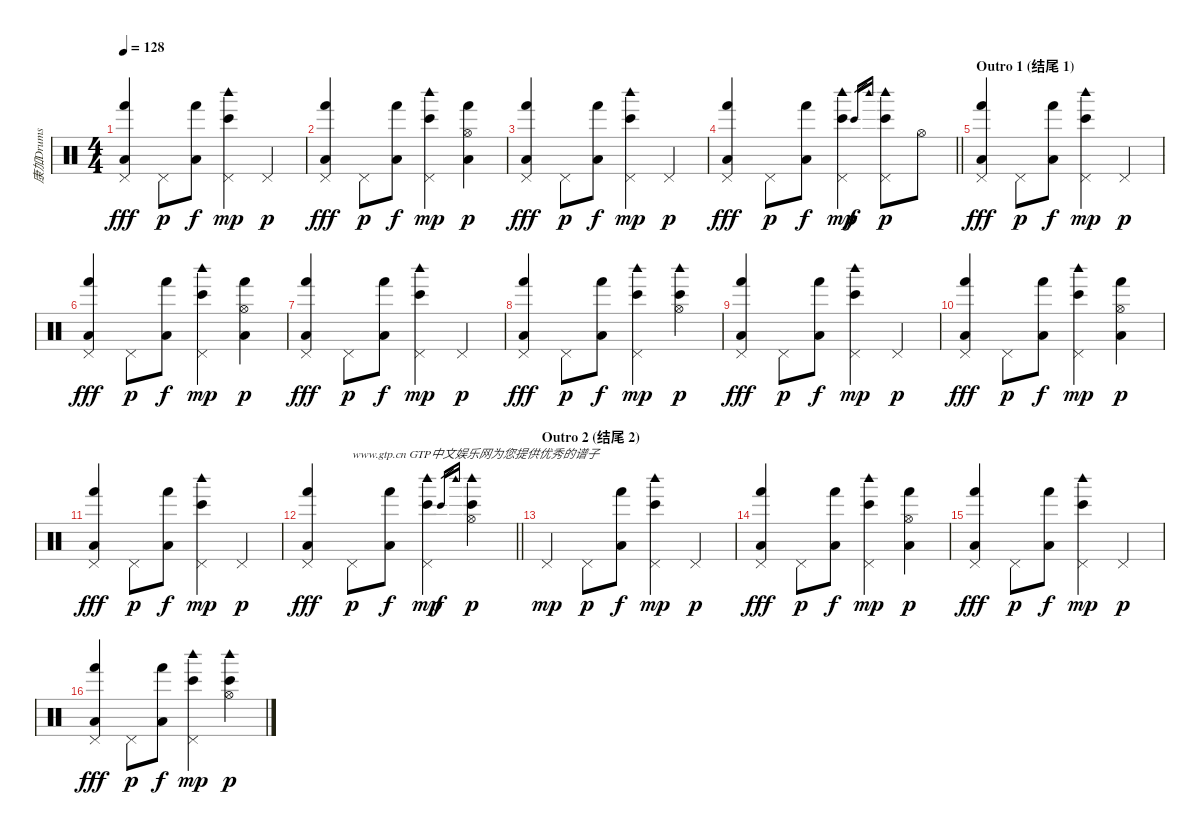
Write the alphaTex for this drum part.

\track ("康加Drums" "康加Drums") {instrument percussion}
\staff {score}
\articulation defaults
\ts (4 4)
\tempo 128
\clef neutral
\ks c
("Pedal Hi-Hat (hit)" "Hand (hit)" "Low Floor Tom (hit)").4{dy fff} "Pedal Hi-Hat (hit)".8{dy p} ("Hand (hit)" "Low Floor Tom (hit)").8{dy f} ("Bongo High (hit)" "Woodblock high (hit)" "Pedal Hi-Hat (hit)").4{dy mp} "Pedal Hi-Hat (hit)".4{dy p} |
("Pedal Hi-Hat (hit)" "Hand (hit)" "Low Floor Tom (hit)").4{dy fff} "Pedal Hi-Hat (hit)".8{dy p} ("Hand (hit)" "Low Floor Tom (hit)").8{dy f} ("Bongo High (hit)" "Woodblock high (hit)" "Pedal Hi-Hat (hit)").4{dy mp} ("Hi-Hat (open)" "Hand (hit)" "Low Floor Tom (hit)").4{dy p} |
("Pedal Hi-Hat (hit)" "Hand (hit)" "Low Floor Tom (hit)").4{dy fff} "Pedal Hi-Hat (hit)".8{dy p} ("Hand (hit)" "Low Floor Tom (hit)").8{dy f} ("Bongo High (hit)" "Woodblock high (hit)" "Pedal Hi-Hat (hit)").4{dy mp} "Pedal Hi-Hat (hit)".4{dy p} |
\barLineRight lightlight
("Pedal Hi-Hat (hit)" "Hand (hit)" "Low Floor Tom (hit)").4{dy fff} "Pedal Hi-Hat (hit)".8{dy p} ("Hand (hit)" "Low Floor Tom (hit)").8{dy f} ("Bongo High (hit)" "Woodblock high (hit)" "Pedal Hi-Hat (hit)").4{dy mp} "Bongo High (hit)".16{gr dy f} "Woodblock high (hit)".16{gr} ("Bongo High (hit)" "Woodblock high (hit)" "Pedal Hi-Hat (hit)").8{dy p} "Hi-Hat (open)".8 |
\section ("" "Outro 1 (结尾 1)")
("Pedal Hi-Hat (hit)" "Hand (hit)" "Low Floor Tom (hit)").4{dy fff} "Pedal Hi-Hat (hit)".8{dy p} ("Hand (hit)" "Low Floor Tom (hit)").8{dy f} ("Bongo High (hit)" "Woodblock high (hit)" "Pedal Hi-Hat (hit)").4{dy mp} "Pedal Hi-Hat (hit)".4{dy p} |
("Pedal Hi-Hat (hit)" "Hand (hit)" "Low Floor Tom (hit)").4{dy fff} "Pedal Hi-Hat (hit)".8{dy p} ("Hand (hit)" "Low Floor Tom (hit)").8{dy f} ("Bongo High (hit)" "Woodblock high (hit)" "Pedal Hi-Hat (hit)").4{dy mp} ("Hi-Hat (open)" "Hand (hit)" "Low Floor Tom (hit)").4{dy p} |
("Pedal Hi-Hat (hit)" "Hand (hit)" "Low Floor Tom (hit)").4{dy fff} "Pedal Hi-Hat (hit)".8{dy p} ("Hand (hit)" "Low Floor Tom (hit)").8{dy f} ("Bongo High (hit)" "Woodblock high (hit)" "Pedal Hi-Hat (hit)").4{dy mp} "Pedal Hi-Hat (hit)".4{dy p} |
("Pedal Hi-Hat (hit)" "Hand (hit)" "Low Floor Tom (hit)").4{dy fff} "Pedal Hi-Hat (hit)".8{dy p} ("Hand (hit)" "Low Floor Tom (hit)").8{dy f} ("Bongo High (hit)" "Woodblock high (hit)" "Pedal Hi-Hat (hit)").4{dy mp} ("Bongo High (hit)" "Woodblock high (hit)" "Hi-Hat (open)").4{dy p} |
("Pedal Hi-Hat (hit)" "Hand (hit)" "Low Floor Tom (hit)").4{dy fff} "Pedal Hi-Hat (hit)".8{dy p} ("Hand (hit)" "Low Floor Tom (hit)").8{dy f} ("Bongo High (hit)" "Woodblock high (hit)" "Pedal Hi-Hat (hit)").4{dy mp} "Pedal Hi-Hat (hit)".4{dy p} |
("Pedal Hi-Hat (hit)" "Hand (hit)" "Low Floor Tom (hit)").4{dy fff} "Pedal Hi-Hat (hit)".8{dy p} ("Hand (hit)" "Low Floor Tom (hit)").8{dy f} ("Bongo High (hit)" "Woodblock high (hit)" "Pedal Hi-Hat (hit)").4{dy mp} ("Hi-Hat (open)" "Hand (hit)" "Low Floor Tom (hit)").4{dy p} |
("Pedal Hi-Hat (hit)" "Hand (hit)" "Low Floor Tom (hit)").4{dy fff} "Pedal Hi-Hat (hit)".8{dy p} ("Hand (hit)" "Low Floor Tom (hit)").8{dy f} ("Bongo High (hit)" "Woodblock high (hit)" "Pedal Hi-Hat (hit)").4{dy mp} "Pedal Hi-Hat (hit)".4{dy p} |
\barLineRight lightlight
("Pedal Hi-Hat (hit)" "Hand (hit)" "Low Floor Tom (hit)").4{dy fff} "Pedal Hi-Hat (hit)".8{txt "www.gtp.cn GTP中文娱乐网为您提供优秀的谱子" dy p} ("Hand (hit)" "Low Floor Tom (hit)").8{dy f} ("Bongo High (hit)" "Woodblock high (hit)" "Pedal Hi-Hat (hit)").4{dy mp} "Bongo High (hit)".16{gr dy f} "Woodblock high (hit)".16{gr} ("Bongo High (hit)" "Woodblock high (hit)" "Hi-Hat (open)").4{dy p} |
\section ("" "Outro 2 (结尾 2)")
"Pedal Hi-Hat (hit)".4{dy mp} "Pedal Hi-Hat (hit)".8{dy p} ("Hand (hit)" "Low Floor Tom (hit)").8{dy f} ("Bongo High (hit)" "Woodblock high (hit)" "Pedal Hi-Hat (hit)").4{dy mp} "Pedal Hi-Hat (hit)".4{dy p} |
("Pedal Hi-Hat (hit)" "Hand (hit)" "Low Floor Tom (hit)").4{dy fff} "Pedal Hi-Hat (hit)".8{dy p} ("Hand (hit)" "Low Floor Tom (hit)").8{dy f} ("Bongo High (hit)" "Woodblock high (hit)" "Pedal Hi-Hat (hit)").4{dy mp} ("Hi-Hat (open)" "Hand (hit)" "Low Floor Tom (hit)").4{dy p} |
("Pedal Hi-Hat (hit)" "Hand (hit)" "Low Floor Tom (hit)").4{dy fff} "Pedal Hi-Hat (hit)".8{dy p} ("Hand (hit)" "Low Floor Tom (hit)").8{dy f} ("Bongo High (hit)" "Woodblock high (hit)" "Pedal Hi-Hat (hit)").4{dy mp} "Pedal Hi-Hat (hit)".4{dy p} |
("Pedal Hi-Hat (hit)" "Hand (hit)" "Low Floor Tom (hit)").4{dy fff} "Pedal Hi-Hat (hit)".8{dy p} ("Hand (hit)" "Low Floor Tom (hit)").8{dy f} ("Bongo High (hit)" "Woodblock high (hit)" "Pedal Hi-Hat (hit)").4{dy mp} ("Bongo High (hit)" "Woodblock high (hit)" "Hi-Hat (open)").4{dy p}
